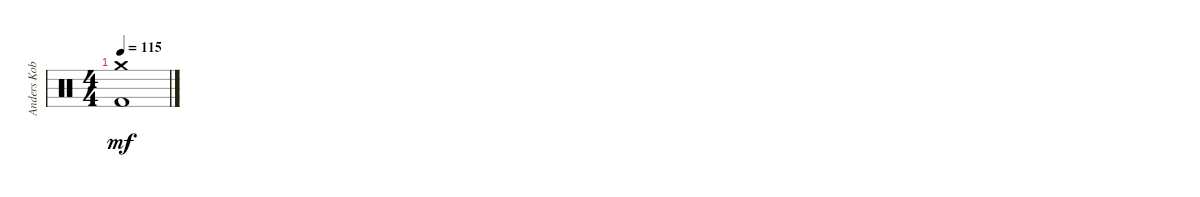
\track ("Anders Kobro " "Anders Kob") {instrument percussion}
\staff {score}
\articulation defaults
\ts (4 4)
\tempo 115
\clef neutral
\ks c
("Crash medium (hit)" "Kick (hit) 2").1{dy mf}
